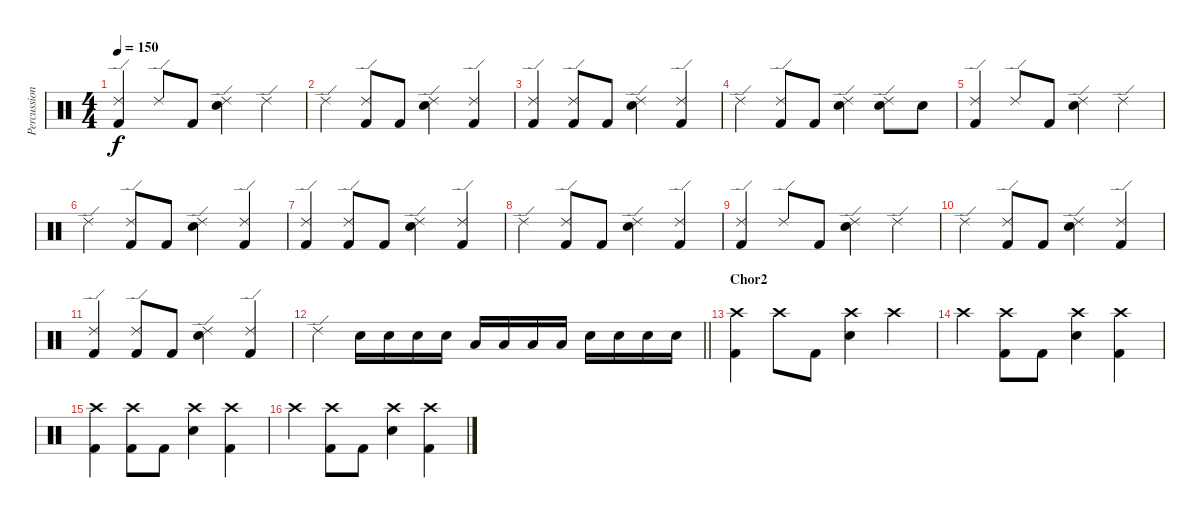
\track ("Percussion" "Percussion") {instrument percussion}
\staff {score}
\articulation defaults
\ts (4 4)
\tempo 150
\clef neutral
\ks c
("Ride (edge) 2" "Kick (hit) 2").4{dy f} "Ride (edge) 2".8 "Kick (hit) 2".8 ("Ride (edge) 2" "Snare (hit) 2").4 "Ride (edge) 2".4 |
"Ride (edge) 2".4 ("Ride (edge) 2" "Kick (hit) 2").8 "Kick (hit) 2".8 ("Ride (edge) 2" "Snare (hit) 2").4 ("Ride (edge) 2" "Kick (hit) 2").4 |
("Ride (edge) 2" "Kick (hit) 2").4 ("Ride (edge) 2" "Kick (hit) 2").8 "Kick (hit) 2".8 ("Ride (edge) 2" "Snare (hit) 2").4 ("Ride (edge) 2" "Kick (hit) 2").4 |
"Ride (edge) 2".4 ("Ride (edge) 2" "Kick (hit) 2").8 "Kick (hit) 2".8 ("Ride (edge) 2" "Snare (hit) 2").4 ("Ride (edge) 2" "Snare (hit) 2").8 "Snare (hit) 2".8 |
("Ride (edge) 2" "Kick (hit) 2").4 "Ride (edge) 2".8 "Kick (hit) 2".8 ("Ride (edge) 2" "Snare (hit) 2").4 "Ride (edge) 2".4 |
"Ride (edge) 2".4 ("Ride (edge) 2" "Kick (hit) 2").8 "Kick (hit) 2".8 ("Ride (edge) 2" "Snare (hit) 2").4 ("Ride (edge) 2" "Kick (hit) 2").4 |
("Ride (edge) 2" "Kick (hit) 2").4 ("Ride (edge) 2" "Kick (hit) 2").8 "Kick (hit) 2".8 ("Ride (edge) 2" "Snare (hit) 2").4 ("Ride (edge) 2" "Kick (hit) 2").4 |
"Ride (edge) 2".4 ("Ride (edge) 2" "Kick (hit) 2").8 "Kick (hit) 2".8 ("Ride (edge) 2" "Snare (hit) 2").4 ("Ride (edge) 2" "Kick (hit) 2").4 |
("Ride (edge) 2" "Kick (hit) 2").4 "Ride (edge) 2".8 "Kick (hit) 2".8 ("Ride (edge) 2" "Snare (hit) 2").4 "Ride (edge) 2".4 |
"Ride (edge) 2".4 ("Ride (edge) 2" "Kick (hit) 2").8 "Kick (hit) 2".8 ("Ride (edge) 2" "Snare (hit) 2").4 ("Ride (edge) 2" "Kick (hit) 2").4 |
("Ride (edge) 2" "Kick (hit) 2").4 ("Ride (edge) 2" "Kick (hit) 2").8 "Kick (hit) 2".8 ("Ride (edge) 2" "Snare (hit) 2").4 ("Ride (edge) 2" "Kick (hit) 2").4 |
\barLineRight lightlight "Ride (edge) 2".4 "Snare (hit) 2".16 "Snare (hit) 2".16 "Snare (hit) 2".16 "Snare (hit) 2".16 "Low Tom (hit)".16 "Low Tom (hit)".16 "Low Tom (hit)".16 "Low Tom (hit)".16 "Snare (hit) 2".16 "Snare (hit) 2".16 "Snare (hit) 2".16 "Snare (hit) 2".16
|
\section ("" "Chor2")
("Crash high (hit)" "Kick (hit) 2").4 "Crash high (hit)".8 "Kick (hit) 2".8 ("Crash high (hit)" "Snare (hit) 2").4 "Crash high (hit)".4 |
"Crash high (hit)".4 ("Crash high (hit)" "Kick (hit) 2").8 "Kick (hit) 2".8 ("Crash high (hit)" "Snare (hit) 2").4 ("Crash high (hit)" "Kick (hit) 2").4 |
("Crash high (hit)" "Kick (hit) 2").4 ("Crash high (hit)" "Kick (hit) 2").8 "Kick (hit) 2".8 ("Crash high (hit)" "Snare (hit) 2").4 ("Crash high (hit)" "Kick (hit) 2").4 |
"Crash high (hit)".4 ("Crash high (hit)" "Kick (hit) 2").8 "Kick (hit) 2".8 ("Crash high (hit)" "Snare (hit) 2").4 ("Crash high (hit)" "Kick (hit) 2").4
